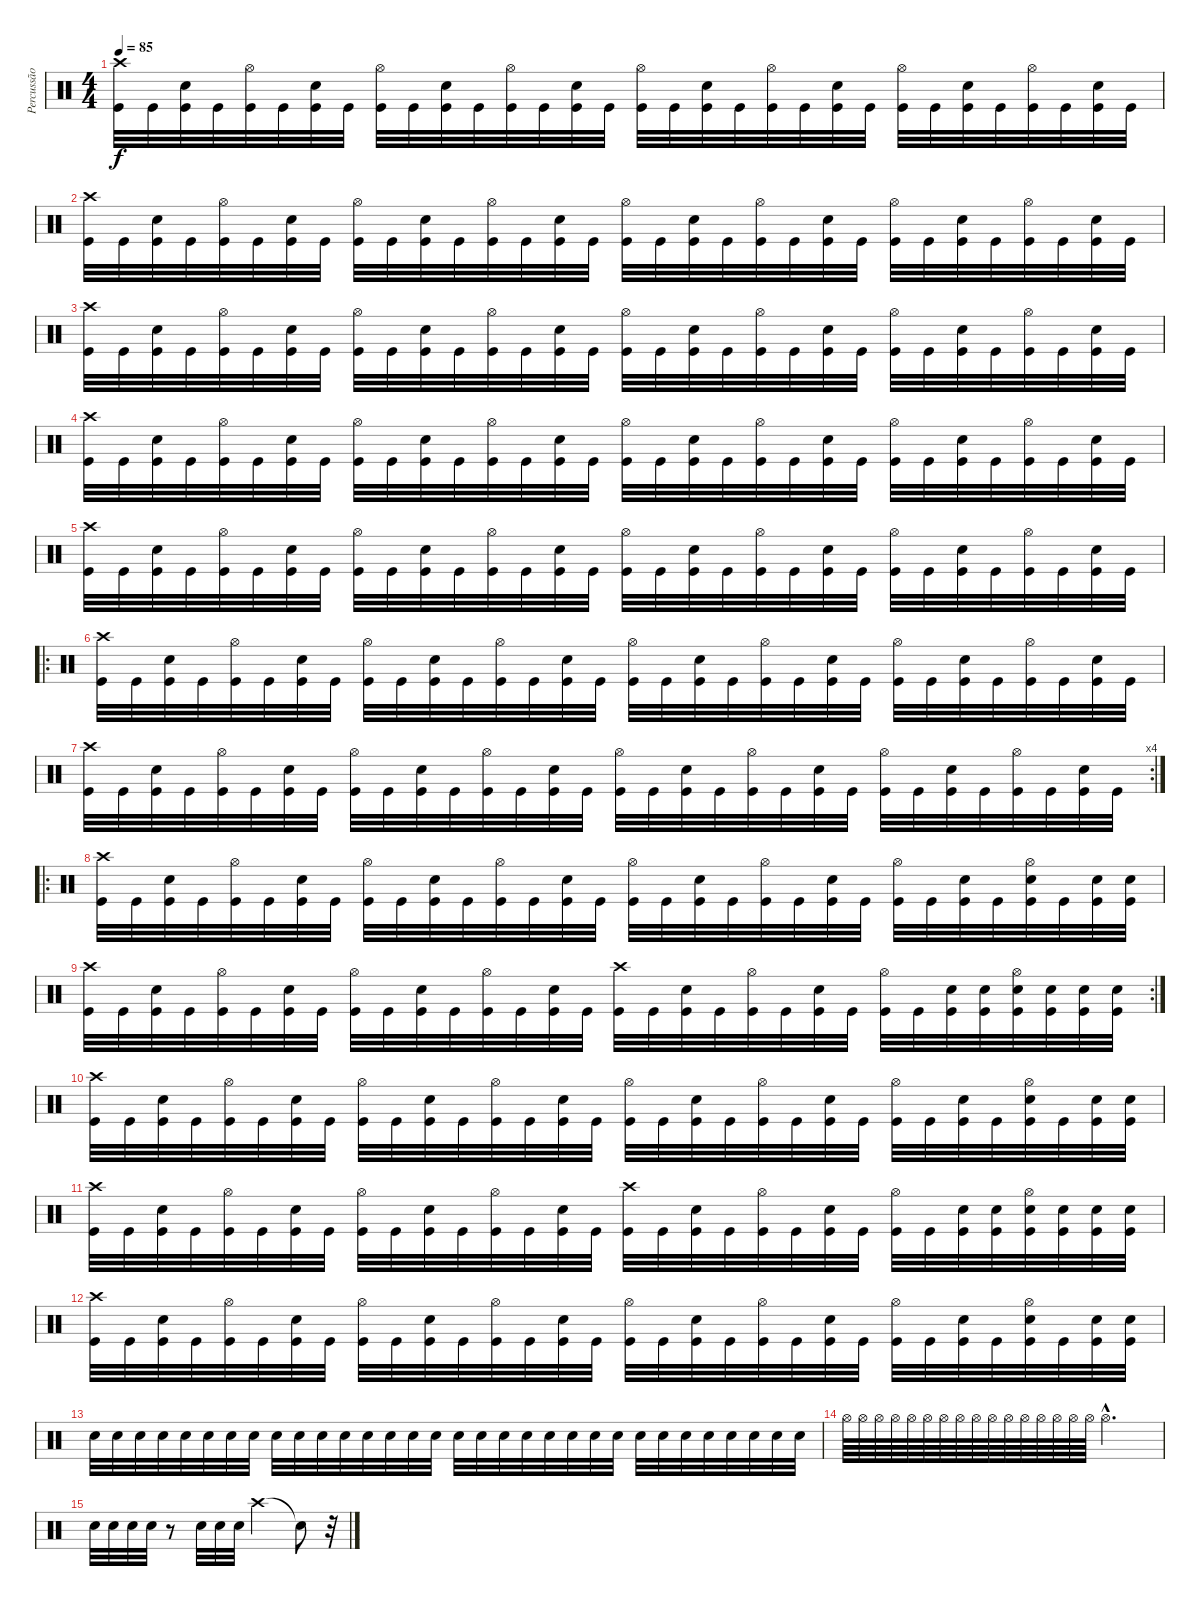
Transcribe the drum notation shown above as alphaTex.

\track ("Percussão" "Percussão") {instrument percussion}
\staff {score}
\articulation defaults
\ts (4 4)
\tempo 85
\clef neutral
\ks c
("Crash high (hit)" "Kick (hit)").32{dy f} "Kick (hit)".32 ("Snare (hit) 2" "Kick (hit)").32 "Kick (hit)".32 ("Hi-Hat (open)" "Kick (hit)").32 "Kick (hit)".32 ("Snare (hit) 2" "Kick (hit)").32 "Kick (hit)".32 ("Hi-Hat (open)" "Kick (hit)").32 "Kick (hit)".32 ("Snare (hit) 2" "Kick (hit)").32 "Kick (hit)".32 ("Hi-Hat (open)" "Kick (hit)").32 "Kick (hit)".32 ("Snare (hit) 2" "Kick (hit)").32 "Kick (hit)".32 ("Hi-Hat (open)" "Kick (hit)").32 "Kick (hit)".32 ("Snare (hit) 2" "Kick (hit)").32 "Kick (hit)".32 ("Hi-Hat (open)" "Kick (hit)").32 "Kick (hit)".32 ("Snare (hit) 2" "Kick (hit)").32 "Kick (hit)".32 ("Hi-Hat (open)" "Kick (hit)").32 "Kick (hit)".32 ("Snare (hit) 2" "Kick (hit)").32 "Kick (hit)".32 ("Hi-Hat (open)" "Kick (hit)").32 "Kick (hit)".32 ("Snare (hit) 2" "Kick (hit)").32 "Kick (hit)".32 |
("Crash high (hit)" "Kick (hit)").32 "Kick (hit)".32 ("Snare (hit) 2" "Kick (hit)").32 "Kick (hit)".32 ("Hi-Hat (open)" "Kick (hit)").32 "Kick (hit)".32 ("Snare (hit) 2" "Kick (hit)").32 "Kick (hit)".32 ("Hi-Hat (open)" "Kick (hit)").32 "Kick (hit)".32 ("Snare (hit) 2" "Kick (hit)").32 "Kick (hit)".32 ("Hi-Hat (open)" "Kick (hit)").32 "Kick (hit)".32 ("Snare (hit) 2" "Kick (hit)").32 "Kick (hit)".32 ("Hi-Hat (open)" "Kick (hit)").32 "Kick (hit)".32 ("Snare (hit) 2" "Kick (hit)").32 "Kick (hit)".32 ("Hi-Hat (open)" "Kick (hit)").32 "Kick (hit)".32 ("Snare (hit) 2" "Kick (hit)").32 "Kick (hit)".32 ("Hi-Hat (open)" "Kick (hit)").32 "Kick (hit)".32 ("Snare (hit) 2" "Kick (hit)").32 "Kick (hit)".32 ("Hi-Hat (open)" "Kick (hit)").32 "Kick (hit)".32 ("Snare (hit) 2" "Kick (hit)").32 "Kick (hit)".32 |
("Crash high (hit)" "Kick (hit)").32 "Kick (hit)".32 ("Snare (hit) 2" "Kick (hit)").32 "Kick (hit)".32 ("Hi-Hat (open)" "Kick (hit)").32 "Kick (hit)".32 ("Snare (hit) 2" "Kick (hit)").32 "Kick (hit)".32 ("Hi-Hat (open)" "Kick (hit)").32 "Kick (hit)".32 ("Snare (hit) 2" "Kick (hit)").32 "Kick (hit)".32 ("Hi-Hat (open)" "Kick (hit)").32 "Kick (hit)".32 ("Snare (hit) 2" "Kick (hit)").32 "Kick (hit)".32 ("Hi-Hat (open)" "Kick (hit)").32 "Kick (hit)".32 ("Snare (hit) 2" "Kick (hit)").32 "Kick (hit)".32 ("Hi-Hat (open)" "Kick (hit)").32 "Kick (hit)".32 ("Snare (hit) 2" "Kick (hit)").32 "Kick (hit)".32 ("Hi-Hat (open)" "Kick (hit)").32 "Kick (hit)".32 ("Snare (hit) 2" "Kick (hit)").32 "Kick (hit)".32 ("Hi-Hat (open)" "Kick (hit)").32 "Kick (hit)".32 ("Snare (hit) 2" "Kick (hit)").32 "Kick (hit)".32 |
("Crash high (hit)" "Kick (hit)").32 "Kick (hit)".32 ("Snare (hit) 2" "Kick (hit)").32 "Kick (hit)".32 ("Hi-Hat (open)" "Kick (hit)").32 "Kick (hit)".32 ("Snare (hit) 2" "Kick (hit)").32 "Kick (hit)".32 ("Hi-Hat (open)" "Kick (hit)").32 "Kick (hit)".32 ("Snare (hit) 2" "Kick (hit)").32 "Kick (hit)".32 ("Hi-Hat (open)" "Kick (hit)").32 "Kick (hit)".32 ("Snare (hit) 2" "Kick (hit)").32 "Kick (hit)".32 ("Hi-Hat (open)" "Kick (hit)").32 "Kick (hit)".32 ("Snare (hit) 2" "Kick (hit)").32 "Kick (hit)".32 ("Hi-Hat (open)" "Kick (hit)").32 "Kick (hit)".32 ("Snare (hit) 2" "Kick (hit)").32 "Kick (hit)".32 ("Hi-Hat (open)" "Kick (hit)").32 "Kick (hit)".32 ("Snare (hit) 2" "Kick (hit)").32 "Kick (hit)".32 ("Hi-Hat (open)" "Kick (hit)").32 "Kick (hit)".32 ("Snare (hit) 2" "Kick (hit)").32 "Kick (hit)".32 |
("Crash high (hit)" "Kick (hit)").32 "Kick (hit)".32 ("Snare (hit) 2" "Kick (hit)").32 "Kick (hit)".32 ("Hi-Hat (open)" "Kick (hit)").32 "Kick (hit)".32 ("Snare (hit) 2" "Kick (hit)").32 "Kick (hit)".32 ("Hi-Hat (open)" "Kick (hit)").32 "Kick (hit)".32 ("Snare (hit) 2" "Kick (hit)").32 "Kick (hit)".32 ("Hi-Hat (open)" "Kick (hit)").32 "Kick (hit)".32 ("Snare (hit) 2" "Kick (hit)").32 "Kick (hit)".32 ("Hi-Hat (open)" "Kick (hit)").32 "Kick (hit)".32 ("Snare (hit) 2" "Kick (hit)").32 "Kick (hit)".32 ("Hi-Hat (open)" "Kick (hit)").32 "Kick (hit)".32 ("Snare (hit) 2" "Kick (hit)").32 "Kick (hit)".32 ("Hi-Hat (open)" "Kick (hit)").32 "Kick (hit)".32 ("Snare (hit) 2" "Kick (hit)").32 "Kick (hit)".32 ("Hi-Hat (open)" "Kick (hit)").32 "Kick (hit)".32 ("Snare (hit) 2" "Kick (hit)").32 "Kick (hit)".32 |
\ro
("Crash high (hit)" "Kick (hit)").32 "Kick (hit)".32 ("Snare (hit) 2" "Kick (hit)").32 "Kick (hit)".32 ("Hi-Hat (open)" "Kick (hit)").32 "Kick (hit)".32 ("Snare (hit) 2" "Kick (hit)").32 "Kick (hit)".32 ("Hi-Hat (open)" "Kick (hit)").32 "Kick (hit)".32 ("Snare (hit) 2" "Kick (hit)").32 "Kick (hit)".32 ("Hi-Hat (open)" "Kick (hit)").32 "Kick (hit)".32 ("Snare (hit) 2" "Kick (hit)").32 "Kick (hit)".32 ("Hi-Hat (open)" "Kick (hit)").32 "Kick (hit)".32 ("Snare (hit) 2" "Kick (hit)").32 "Kick (hit)".32 ("Hi-Hat (open)" "Kick (hit)").32 "Kick (hit)".32 ("Snare (hit) 2" "Kick (hit)").32 "Kick (hit)".32 ("Hi-Hat (open)" "Kick (hit)").32 "Kick (hit)".32 ("Snare (hit) 2" "Kick (hit)").32 "Kick (hit)".32 ("Hi-Hat (open)" "Kick (hit)").32 "Kick (hit)".32 ("Snare (hit) 2" "Kick (hit)").32 "Kick (hit)".32 |
\rc 4
("Crash high (hit)" "Kick (hit)").32 "Kick (hit)".32 ("Snare (hit) 2" "Kick (hit)").32 "Kick (hit)".32 ("Hi-Hat (open)" "Kick (hit)").32 "Kick (hit)".32 ("Snare (hit) 2" "Kick (hit)").32 "Kick (hit)".32 ("Hi-Hat (open)" "Kick (hit)").32 "Kick (hit)".32 ("Snare (hit) 2" "Kick (hit)").32 "Kick (hit)".32 ("Hi-Hat (open)" "Kick (hit)").32 "Kick (hit)".32 ("Snare (hit) 2" "Kick (hit)").32 "Kick (hit)".32 ("Hi-Hat (open)" "Kick (hit)").32 "Kick (hit)".32 ("Snare (hit) 2" "Kick (hit)").32 "Kick (hit)".32 ("Hi-Hat (open)" "Kick (hit)").32 "Kick (hit)".32 ("Snare (hit) 2" "Kick (hit)").32 "Kick (hit)".32 ("Hi-Hat (open)" "Kick (hit)").32 "Kick (hit)".32 ("Snare (hit) 2" "Kick (hit)").32 "Kick (hit)".32 ("Hi-Hat (open)" "Kick (hit)").32 "Kick (hit)".32 ("Snare (hit) 2" "Kick (hit)").32 "Kick (hit)".32 |
\ro
("Crash high (hit)" "Kick (hit)").32 "Kick (hit)".32 ("Snare (hit) 2" "Kick (hit)").32 "Kick (hit)".32 ("Hi-Hat (open)" "Kick (hit)").32 "Kick (hit)".32 ("Snare (hit) 2" "Kick (hit)").32 "Kick (hit)".32 ("Hi-Hat (open)" "Kick (hit)").32 "Kick (hit)".32 ("Snare (hit) 2" "Kick (hit)").32 "Kick (hit)".32 ("Hi-Hat (open)" "Kick (hit)").32 "Kick (hit)".32 ("Snare (hit) 2" "Kick (hit)").32 "Kick (hit)".32 ("Hi-Hat (open)" "Kick (hit)").32 "Kick (hit)".32 ("Snare (hit) 2" "Kick (hit)").32 "Kick (hit)".32 ("Hi-Hat (open)" "Kick (hit)").32 "Kick (hit)".32 ("Snare (hit) 2" "Kick (hit)").32 "Kick (hit)".32 ("Hi-Hat (open)" "Kick (hit)").32 "Kick (hit)".32 ("Snare (hit) 2" "Kick (hit)").32 "Kick (hit)".32 ("Hi-Hat (open)" "Snare (hit) 2" "Kick (hit)").32 "Kick (hit)".32 ("Snare (hit) 2" "Kick (hit)").32 ("Snare (hit) 2" "Kick (hit)").32 |
\rc 2
("Crash high (hit)" "Kick (hit)").32 "Kick (hit)".32 ("Snare (hit) 2" "Kick (hit)").32 "Kick (hit)".32 ("Hi-Hat (open)" "Kick (hit)").32 "Kick (hit)".32 ("Snare (hit) 2" "Kick (hit)").32 "Kick (hit)".32 ("Hi-Hat (open)" "Kick (hit)").32 "Kick (hit)".32 ("Snare (hit) 2" "Kick (hit)").32 "Kick (hit)".32 ("Hi-Hat (open)" "Kick (hit)").32 "Kick (hit)".32 ("Snare (hit) 2" "Kick (hit)").32 "Kick (hit)".32 ("Crash high (hit)" "Kick (hit)").32 "Kick (hit)".32 ("Snare (hit) 2" "Kick (hit)").32 "Kick (hit)".32 ("Hi-Hat (open)" "Kick (hit)").32 "Kick (hit)".32 ("Snare (hit) 2" "Kick (hit)").32 "Kick (hit)".32 ("Hi-Hat (open)" "Kick (hit)").32 "Kick (hit)".32 ("Snare (hit) 2" "Kick (hit)").32 ("Snare (hit) 2" "Kick (hit)").32 ("Hi-Hat (open)" "Snare (hit) 2" "Kick (hit)").32 ("Snare (hit) 2" "Kick (hit)").32 ("Snare (hit) 2" "Kick (hit)").32 ("Snare (hit) 2" "Kick (hit)").32 |
("Crash high (hit)" "Kick (hit)").32 "Kick (hit)".32 ("Snare (hit) 2" "Kick (hit)").32 "Kick (hit)".32 ("Hi-Hat (open)" "Kick (hit)").32 "Kick (hit)".32 ("Snare (hit) 2" "Kick (hit)").32 "Kick (hit)".32 ("Hi-Hat (open)" "Kick (hit)").32 "Kick (hit)".32 ("Snare (hit) 2" "Kick (hit)").32 "Kick (hit)".32 ("Hi-Hat (open)" "Kick (hit)").32 "Kick (hit)".32 ("Snare (hit) 2" "Kick (hit)").32 "Kick (hit)".32 ("Hi-Hat (open)" "Kick (hit)").32 "Kick (hit)".32 ("Snare (hit) 2" "Kick (hit)").32 "Kick (hit)".32 ("Hi-Hat (open)" "Kick (hit)").32 "Kick (hit)".32 ("Snare (hit) 2" "Kick (hit)").32 "Kick (hit)".32 ("Hi-Hat (open)" "Kick (hit)").32 "Kick (hit)".32 ("Snare (hit) 2" "Kick (hit)").32 "Kick (hit)".32 ("Hi-Hat (open)" "Snare (hit) 2" "Kick (hit)").32 "Kick (hit)".32 ("Snare (hit) 2" "Kick (hit)").32 ("Snare (hit) 2" "Kick (hit)").32 |
("Crash high (hit)" "Kick (hit)").32 "Kick (hit)".32 ("Snare (hit) 2" "Kick (hit)").32 "Kick (hit)".32 ("Hi-Hat (open)" "Kick (hit)").32 "Kick (hit)".32 ("Snare (hit) 2" "Kick (hit)").32 "Kick (hit)".32 ("Hi-Hat (open)" "Kick (hit)").32 "Kick (hit)".32 ("Snare (hit) 2" "Kick (hit)").32 "Kick (hit)".32 ("Hi-Hat (open)" "Kick (hit)").32 "Kick (hit)".32 ("Snare (hit) 2" "Kick (hit)").32 "Kick (hit)".32 ("Crash high (hit)" "Kick (hit)").32 "Kick (hit)".32 ("Snare (hit) 2" "Kick (hit)").32 "Kick (hit)".32 ("Hi-Hat (open)" "Kick (hit)").32 "Kick (hit)".32 ("Snare (hit) 2" "Kick (hit)").32 "Kick (hit)".32 ("Hi-Hat (open)" "Kick (hit)").32 "Kick (hit)".32 ("Snare (hit) 2" "Kick (hit)").32 ("Snare (hit) 2" "Kick (hit)").32 ("Hi-Hat (open)" "Snare (hit) 2" "Kick (hit)").32 ("Snare (hit) 2" "Kick (hit)").32 ("Snare (hit) 2" "Kick (hit)").32 ("Snare (hit) 2" "Kick (hit)").32 |
("Crash high (hit)" "Kick (hit)").32 "Kick (hit)".32 ("Snare (hit) 2" "Kick (hit)").32 "Kick (hit)".32 ("Hi-Hat (open)" "Kick (hit)").32 "Kick (hit)".32 ("Snare (hit) 2" "Kick (hit)").32 "Kick (hit)".32 ("Hi-Hat (open)" "Kick (hit)").32 "Kick (hit)".32 ("Snare (hit) 2" "Kick (hit)").32 "Kick (hit)".32 ("Hi-Hat (open)" "Kick (hit)").32 "Kick (hit)".32 ("Snare (hit) 2" "Kick (hit)").32 "Kick (hit)".32 ("Hi-Hat (open)" "Kick (hit)").32 "Kick (hit)".32 ("Snare (hit) 2" "Kick (hit)").32 "Kick (hit)".32 ("Hi-Hat (open)" "Kick (hit)").32 "Kick (hit)".32 ("Snare (hit) 2" "Kick (hit)").32 "Kick (hit)".32 ("Hi-Hat (open)" "Kick (hit)").32 "Kick (hit)".32 ("Snare (hit) 2" "Kick (hit)").32 "Kick (hit)".32 ("Hi-Hat (open)" "Snare (hit) 2" "Kick (hit)").32 "Kick (hit)".32 ("Snare (hit) 2" "Kick (hit)").32 ("Snare (hit) 2" "Kick (hit)").32 |
"Snare (hit) 2".32 "Snare (hit) 2".32 "Snare (hit) 2".32 "Snare (hit) 2".32 "Snare (hit) 2".32 "Snare (hit) 2".32 "Snare (hit) 2".32 "Snare (hit) 2".32 "Snare (hit) 2".32 "Snare (hit) 2".32 "Snare (hit) 2".32 "Snare (hit) 2".32 "Snare (hit) 2".32 "Snare (hit) 2".32 "Snare (hit) 2".32 "Snare (hit) 2".32 "Snare (hit) 2".32 "Snare (hit) 2".32 "Snare (hit) 2".32 "Snare (hit) 2".32 "Snare (hit) 2".32 "Snare (hit) 2".32 "Snare (hit) 2".32 "Snare (hit) 2".32 "Snare (hit) 2".32 "Snare (hit) 2".32 "Snare (hit) 2".32 "Snare (hit) 2".32 "Snare (hit) 2".32 "Snare (hit) 2".32 "Snare (hit) 2".32 "Snare (hit) 2".32 |
"Hi-Hat (open)".64 "Hi-Hat (open)".64 "Hi-Hat (open)".64 "Hi-Hat (open)".64 "Hi-Hat (open)".64 "Hi-Hat (open)".64 "Hi-Hat (open)".64 "Hi-Hat (open)".64 "Hi-Hat (open)".64 "Hi-Hat (open)".64 "Hi-Hat (open)".64 "Hi-Hat (open)".64 "Hi-Hat (open)".64 "Hi-Hat (open)".64 "Hi-Hat (open)".64 "Hi-Hat (open)".64 "Hi-Hat (open)"{hac}.2{d} |
"Snare (hit) 2".32 "Snare (hit) 2".32 "Snare (hit) 2".32 "Snare (hit) 2".32 r.8 "Snare (hit) 2".32 "Snare (hit) 2".32 "Snare (hit) 2".32 "Crash high (hit)".2 "Snare (hit)"{t}.8 r.32
